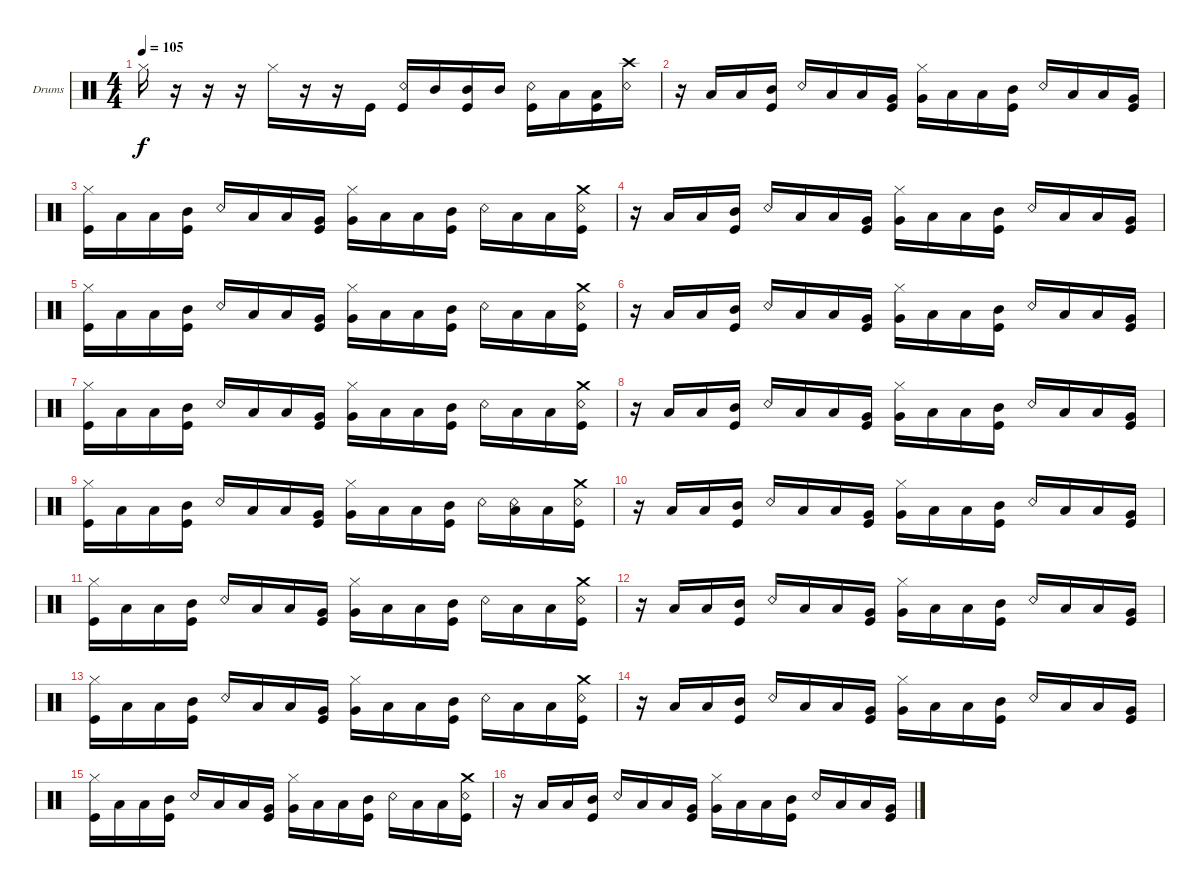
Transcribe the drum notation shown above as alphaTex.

\defaultSystemsLayout 4
\bracketExtendMode groupsimilarinstruments
\firstSystemTrackNameOrientation horizontal
\otherSystemsTrackNameOrientation horizontal
\track ("Drumkit" "Drums") {instrument percussion}
\staff {score}
\articulation defaults
\ts (4 4)
\tempo 105
\clef neutral
\ks c "Hi-Hat (closed)".16{dy f}
r.16 r.16 r.16 "Hi-Hat (closed)".16 r.16 r.16 "Kick (hit)".16 ("Snare (rim shot)" "Kick (hit)").16 "Mid Tom (hit)".16 ("Mid Tom (hit)" "Kick (hit)").16 "Mid Tom (hit)".16 ("Snare (rim shot)" "Kick (hit)").16 "Low Tom (hit)".16 ("Low Tom (hit)" "Kick (hit)").16 ("Snare (rim shot)" "Crash high (hit)").16 |
r.16 "Low Tom (hit)".16 "Low Tom (hit)".16 ("Mid Tom (hit)" "Kick (hit)").16 "Snare (rim shot)".16 "Low Tom (hit)".16 "Low Tom (hit)".16 ("Very Low Tom (hit)" "Kick (hit)").16 ("Very Low Tom (hit)" "Hi-Hat (closed)").16 "Low Tom (hit)".16 "Low Tom (hit)".16 ("Mid Tom (hit)" "Kick (hit)").16 "Snare (rim shot)".16 "Low Tom (hit)".16 "Low Tom (hit)".16 ("Kick (hit)" "Very Low Tom (hit)").16 |
("Kick (hit)" "Hi-Hat (closed)").16 "Low Tom (hit)".16 "Low Tom (hit)".16 ("Mid Tom (hit)" "Kick (hit)").16 "Snare (rim shot)".16 "Low Tom (hit)".16 "Low Tom (hit)".16 ("Very Low Tom (hit)" "Kick (hit)").16 ("Very Low Tom (hit)" "Hi-Hat (closed)").16 "Low Tom (hit)".16 "Low Tom (hit)".16 ("Mid Tom (hit)" "Kick (hit)").16 "Snare (rim shot)".16 "Low Tom (hit)".16 "Low Tom (hit)".16 ("Kick (hit)" "Snare (rim shot)" "Crash medium (hit)").16 |
r.16 "Low Tom (hit)".16 "Low Tom (hit)".16 ("Mid Tom (hit)" "Kick (hit)").16 "Snare (rim shot)".16 "Low Tom (hit)".16 "Low Tom (hit)".16 ("Very Low Tom (hit)" "Kick (hit)").16 ("Very Low Tom (hit)" "Hi-Hat (closed)").16 "Low Tom (hit)".16 "Low Tom (hit)".16 ("Mid Tom (hit)" "Kick (hit)").16 "Snare (rim shot)".16 "Low Tom (hit)".16 "Low Tom (hit)".16 ("Kick (hit)" "Very Low Tom (hit)").16 |
("Kick (hit)" "Hi-Hat (closed)").16 "Low Tom (hit)".16 "Low Tom (hit)".16 ("Mid Tom (hit)" "Kick (hit)").16 "Snare (rim shot)".16 "Low Tom (hit)".16 "Low Tom (hit)".16 ("Very Low Tom (hit)" "Kick (hit)").16 ("Very Low Tom (hit)" "Hi-Hat (closed)").16 "Low Tom (hit)".16 "Low Tom (hit)".16 ("Mid Tom (hit)" "Kick (hit)").16 "Snare (rim shot)".16 "Low Tom (hit)".16 "Low Tom (hit)".16 ("Kick (hit)" "Snare (rim shot)" "Crash medium (hit)").16 |
r.16 "Low Tom (hit)".16 "Low Tom (hit)".16 ("Mid Tom (hit)" "Kick (hit)").16 "Snare (rim shot)".16 "Low Tom (hit)".16 "Low Tom (hit)".16 ("Very Low Tom (hit)" "Kick (hit)").16 ("Very Low Tom (hit)" "Hi-Hat (closed)").16 "Low Tom (hit)".16 "Low Tom (hit)".16 ("Mid Tom (hit)" "Kick (hit)").16 "Snare (rim shot)".16 "Low Tom (hit)".16 "Low Tom (hit)".16 ("Kick (hit)" "Very Low Tom (hit)").16 |
("Kick (hit)" "Hi-Hat (closed)").16 "Low Tom (hit)".16 "Low Tom (hit)".16 ("Mid Tom (hit)" "Kick (hit)").16 "Snare (rim shot)".16 "Low Tom (hit)".16 "Low Tom (hit)".16 ("Very Low Tom (hit)" "Kick (hit)").16 ("Very Low Tom (hit)" "Hi-Hat (closed)").16 "Low Tom (hit)".16 "Low Tom (hit)".16 ("Mid Tom (hit)" "Kick (hit)").16 "Snare (rim shot)".16 "Low Tom (hit)".16 "Low Tom (hit)".16 ("Kick (hit)" "Snare (rim shot)" "Crash medium (hit)").16 |
r.16 "Low Tom (hit)".16 "Low Tom (hit)".16 ("Mid Tom (hit)" "Kick (hit)").16 "Snare (rim shot)".16 "Low Tom (hit)".16 "Low Tom (hit)".16 ("Very Low Tom (hit)" "Kick (hit)").16 ("Very Low Tom (hit)" "Hi-Hat (closed)").16 "Low Tom (hit)".16 "Low Tom (hit)".16 ("Mid Tom (hit)" "Kick (hit)").16 "Snare (rim shot)".16 "Low Tom (hit)".16 "Low Tom (hit)".16 ("Kick (hit)" "Very Low Tom (hit)").16 |
("Kick (hit)" "Hi-Hat (closed)").16 "Low Tom (hit)".16 "Low Tom (hit)".16 ("Mid Tom (hit)" "Kick (hit)").16 "Snare (rim shot)".16 "Low Tom (hit)".16 "Low Tom (hit)".16 ("Very Low Tom (hit)" "Kick (hit)").16 ("Very Low Tom (hit)" "Hi-Hat (closed)").16 "Low Tom (hit)".16 "Low Tom (hit)".16 ("Mid Tom (hit)" "Kick (hit)").16 "Snare (rim shot)".16 ("Low Tom (hit)" "Snare (rim shot)").16 "Low Tom (hit)".16 ("Kick (hit)" "Snare (rim shot)" "Crash medium (hit)").16 |
r.16 "Low Tom (hit)".16 "Low Tom (hit)".16 ("Mid Tom (hit)" "Kick (hit)").16 "Snare (rim shot)".16 "Low Tom (hit)".16 "Low Tom (hit)".16 ("Very Low Tom (hit)" "Kick (hit)").16 ("Very Low Tom (hit)" "Hi-Hat (closed)").16 "Low Tom (hit)".16 "Low Tom (hit)".16 ("Mid Tom (hit)" "Kick (hit)").16 "Snare (rim shot)".16 "Low Tom (hit)".16 "Low Tom (hit)".16 ("Kick (hit)" "Very Low Tom (hit)").16 |
("Kick (hit)" "Hi-Hat (closed)").16 "Low Tom (hit)".16 "Low Tom (hit)".16 ("Mid Tom (hit)" "Kick (hit)").16 "Snare (rim shot)".16 "Low Tom (hit)".16 "Low Tom (hit)".16 ("Very Low Tom (hit)" "Kick (hit)").16 ("Very Low Tom (hit)" "Hi-Hat (closed)").16 "Low Tom (hit)".16 "Low Tom (hit)".16 ("Mid Tom (hit)" "Kick (hit)").16 "Snare (rim shot)".16 "Low Tom (hit)".16 "Low Tom (hit)".16 ("Kick (hit)" "Snare (rim shot)" "Crash medium (hit)").16 |
r.16 "Low Tom (hit)".16 "Low Tom (hit)".16 ("Mid Tom (hit)" "Kick (hit)").16 "Snare (rim shot)".16 "Low Tom (hit)".16 "Low Tom (hit)".16 ("Very Low Tom (hit)" "Kick (hit)").16 ("Very Low Tom (hit)" "Hi-Hat (closed)").16 "Low Tom (hit)".16 "Low Tom (hit)".16 ("Mid Tom (hit)" "Kick (hit)").16 "Snare (rim shot)".16 "Low Tom (hit)".16 "Low Tom (hit)".16 ("Kick (hit)" "Very Low Tom (hit)").16 |
("Kick (hit)" "Hi-Hat (closed)").16 "Low Tom (hit)".16 "Low Tom (hit)".16 ("Mid Tom (hit)" "Kick (hit)").16 "Snare (rim shot)".16 "Low Tom (hit)".16 "Low Tom (hit)".16 ("Very Low Tom (hit)" "Kick (hit)").16 ("Very Low Tom (hit)" "Hi-Hat (closed)").16 "Low Tom (hit)".16 "Low Tom (hit)".16 ("Mid Tom (hit)" "Kick (hit)").16 "Snare (rim shot)".16 "Low Tom (hit)".16 "Low Tom (hit)".16 ("Kick (hit)" "Snare (rim shot)" "Crash medium (hit)").16 |
r.16 "Low Tom (hit)".16 "Low Tom (hit)".16 ("Mid Tom (hit)" "Kick (hit)").16 "Snare (rim shot)".16 "Low Tom (hit)".16 "Low Tom (hit)".16 ("Very Low Tom (hit)" "Kick (hit)").16 ("Very Low Tom (hit)" "Hi-Hat (closed)").16 "Low Tom (hit)".16 "Low Tom (hit)".16 ("Mid Tom (hit)" "Kick (hit)").16 "Snare (rim shot)".16 "Low Tom (hit)".16 "Low Tom (hit)".16 ("Kick (hit)" "Very Low Tom (hit)").16 |
("Kick (hit)" "Hi-Hat (closed)").16 "Low Tom (hit)".16 "Low Tom (hit)".16 ("Mid Tom (hit)" "Kick (hit)").16 "Snare (rim shot)".16 "Low Tom (hit)".16 "Low Tom (hit)".16 ("Very Low Tom (hit)" "Kick (hit)").16 ("Very Low Tom (hit)" "Hi-Hat (closed)").16 "Low Tom (hit)".16 "Low Tom (hit)".16 ("Mid Tom (hit)" "Kick (hit)").16 "Snare (rim shot)".16 "Low Tom (hit)".16 "Low Tom (hit)".16 ("Kick (hit)" "Snare (rim shot)" "Crash medium (hit)").16 |
r.16 "Low Tom (hit)".16 "Low Tom (hit)".16 ("Mid Tom (hit)" "Kick (hit)").16 "Snare (rim shot)".16 "Low Tom (hit)".16 "Low Tom (hit)".16 ("Very Low Tom (hit)" "Kick (hit)").16 ("Very Low Tom (hit)" "Hi-Hat (closed)").16 "Low Tom (hit)".16 "Low Tom (hit)".16 ("Mid Tom (hit)" "Kick (hit)").16 "Snare (rim shot)".16 "Low Tom (hit)".16 "Low Tom (hit)".16 ("Kick (hit)" "Very Low Tom (hit)").16
